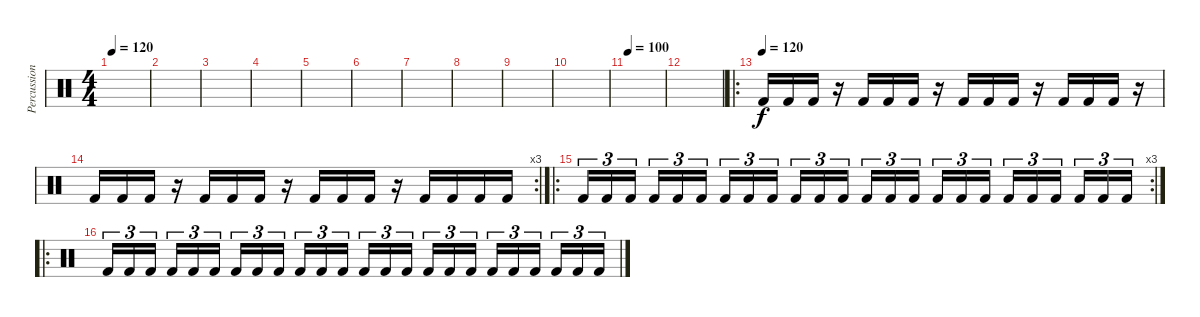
\track ("Percussion" "Percussion") {instrument percussion}
\staff {score}
\articulation defaults
\ts (4 4)
\tempo 120
\clef neutral
\ks c
|
|
|
|
|
|
|
|
|
|
\tempo 100
|
|
\ro
\tempo (120)
"Kick (hit) 2".16 "Kick (hit) 2".16 "Kick (hit) 2".16 r.16 "Kick (hit) 2".16 "Kick (hit) 2".16 "Kick (hit) 2".16 r.16 "Kick (hit) 2".16 "Kick (hit) 2".16 "Kick (hit) 2".16 r.16 "Kick (hit) 2".16 "Kick (hit) 2".16 "Kick (hit) 2".16 r.16 |
\rc 3 "Kick (hit) 2".16 "Kick (hit) 2".16 "Kick (hit) 2".16
r.16 "Kick (hit) 2".16 "Kick (hit) 2".16 "Kick (hit) 2".16 r.16 "Kick (hit) 2".16 "Kick (hit) 2".16 "Kick (hit) 2".16 r.16 "Kick (hit) 2".16 "Kick (hit) 2".16 "Kick (hit) 2".16 "Kick (hit) 2".16 |
\ro
\rc 3 "Kick (hit) 2".16{tu (3 2)} "Kick (hit) 2".16{tu (3 2)} "Kick (hit) 2".16{tu (3 2)} "Kick (hit) 2".16{tu (3 2)} "Kick (hit) 2".16{tu (3 2)} "Kick (hit) 2".16{tu (3 2)} "Kick (hit) 2".16{tu (3 2)} "Kick (hit) 2".16{tu (3 2)} "Kick (hit) 2".16{tu (3 2)} "Kick (hit) 2".16{tu (3 2)} "Kick (hit) 2".16{tu (3 2)} "Kick (hit) 2".16{tu (3 2)} "Kick (hit) 2".16{tu (3 2)} "Kick (hit) 2".16{tu (3 2)} "Kick (hit) 2".16{tu (3 2)} "Kick (hit) 2".16{tu (3 2)} "Kick (hit) 2".16{tu (3 2)} "Kick (hit) 2".16{tu (3 2)} "Kick (hit) 2".16{tu (3 2)} "Kick (hit) 2".16{tu (3 2)} "Kick (hit) 2".16{tu (3 2)} "Kick (hit) 2".16{tu (3 2)} "Kick (hit) 2".16{tu (3 2)} "Kick (hit) 2".16{tu (3 2)}
|
\ro "Kick (hit) 2".16{tu (3 2)} "Kick (hit) 2".16{tu (3 2)} "Kick (hit) 2".16{tu (3 2)} "Kick (hit) 2".16{tu (3 2)} "Kick (hit) 2".16{tu (3 2)} "Kick (hit) 2".16{tu (3 2)} "Kick (hit) 2".16{tu (3 2)} "Kick (hit) 2".16{tu (3 2)} "Kick (hit) 2".16{tu (3 2)} "Kick (hit) 2".16{tu (3 2)} "Kick (hit) 2".16{tu (3 2)} "Kick (hit) 2".16{tu (3 2)} "Kick (hit) 2".16{tu (3 2)} "Kick (hit) 2".16{tu (3 2)} "Kick (hit) 2".16{tu (3 2)} "Kick (hit) 2".16{tu (3 2)} "Kick (hit) 2".16{tu (3 2)} "Kick (hit) 2".16{tu (3 2)} "Kick (hit) 2".16{tu (3 2)} "Kick (hit) 2".16{tu (3 2)} "Kick (hit) 2".16{tu (3 2)} "Kick (hit) 2".16{tu (3 2)} "Kick (hit) 2".16{tu (3 2)} "Kick (hit) 2".16{tu (3 2)}
